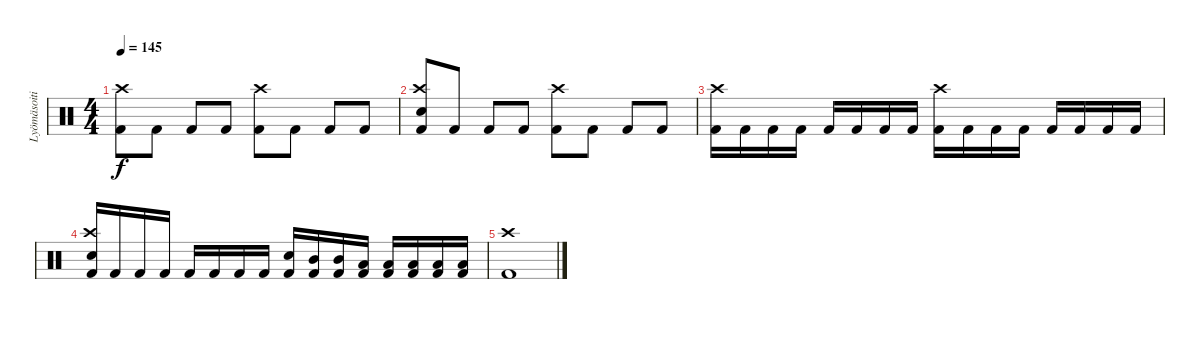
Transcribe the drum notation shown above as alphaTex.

\track ("Lyömäsoitin" "Lyömäsoiti") {instrument percussion}
\staff {score}
\articulation defaults
\ts (4 4)
\tempo 145
\clef neutral
\ks c
("Kick (hit) 2" "Crash high (hit)").8{dy f} "Kick (hit) 2".8 "Kick (hit) 2".8 "Kick (hit) 2".8 ("Kick (hit) 2" "Crash high (hit)").8 "Kick (hit) 2".8 "Kick (hit) 2".8 "Kick (hit) 2".8 |
("Kick (hit) 2" "Electric Snare (hit)" "Crash high (hit)").8 "Kick (hit) 2".8 "Kick (hit) 2".8 "Kick (hit) 2".8 ("Kick (hit) 2" "Crash high (hit)").8 "Kick (hit) 2".8 "Kick (hit) 2".8 "Kick (hit) 2".8 |
("Kick (hit) 2" "Crash high (hit)").16 "Kick (hit) 2".16 "Kick (hit) 2".16 "Kick (hit) 2".16 "Kick (hit) 2".16 "Kick (hit) 2".16 "Kick (hit) 2".16 "Kick (hit) 2".16 ("Kick (hit) 2" "Crash high (hit)").16 "Kick (hit) 2".16 "Kick (hit) 2".16 "Kick (hit) 2".16 "Kick (hit) 2".16 "Kick (hit) 2".16 "Kick (hit) 2".16 "Kick (hit) 2".16 |
("Kick (hit) 2" "Electric Snare (hit)" "Crash high (hit)").16 "Kick (hit) 2".16 "Kick (hit) 2".16 "Kick (hit) 2".16 "Kick (hit) 2".16 "Kick (hit) 2".16 "Kick (hit) 2".16 "Kick (hit) 2".16 ("Kick (hit) 2" "Electric Snare (hit)").16 ("Kick (hit) 2" "Mid Tom (hit)").16 ("Kick (hit) 2" "Mid Tom (hit)").16 ("Kick (hit) 2" "Low Tom (hit)").16 ("Kick (hit) 2" "Low Tom (hit)").16 ("Kick (hit) 2" "Low Floor Tom (hit)").16 ("Kick (hit) 2" "Low Floor Tom (hit)").16 ("Kick (hit) 2" "Low Floor Tom (hit)").16 |
("Kick (hit) 2" "Crash high (hit)").1
